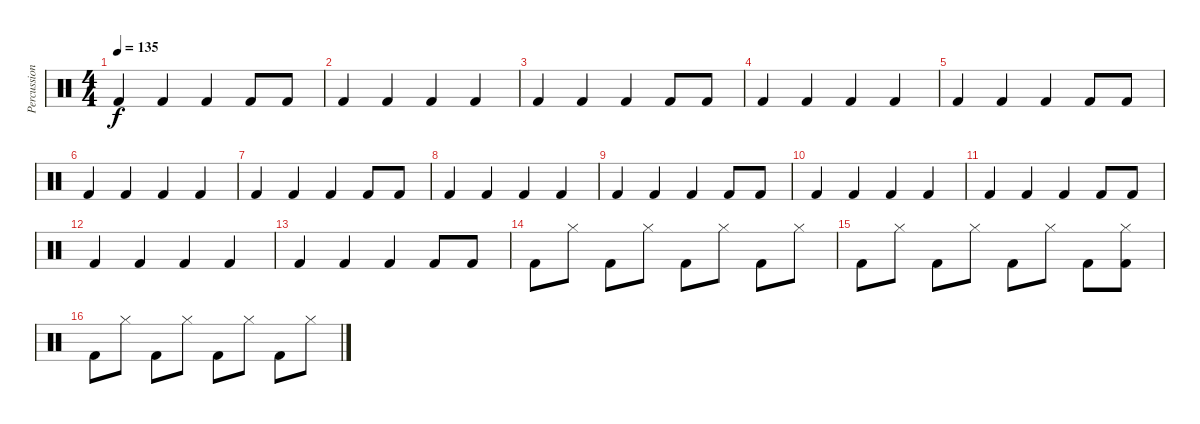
\track ("Percussion" "Percussion") {instrument percussion}
\staff {score}
\articulation defaults
\ts (4 4)
\tempo 135
\clef neutral
\ks c "Kick (hit) 2".4{dy f} "Kick (hit) 2".4 "Kick (hit) 2".4 "Kick (hit) 2".8 "Kick (hit) 2".8
|
"Kick (hit) 2".4 "Kick (hit) 2".4 "Kick (hit) 2".4 "Kick (hit) 2".4 |
"Kick (hit) 2".4 "Kick (hit) 2".4 "Kick (hit) 2".4 "Kick (hit) 2".8 "Kick (hit) 2".8 |
"Kick (hit) 2".4 "Kick (hit) 2".4 "Kick (hit) 2".4 "Kick (hit) 2".4 |
"Kick (hit) 2".4 "Kick (hit) 2".4 "Kick (hit) 2".4 "Kick (hit) 2".8 "Kick (hit) 2".8 |
"Kick (hit) 2".4 "Kick (hit) 2".4 "Kick (hit) 2".4 "Kick (hit) 2".4 |
"Kick (hit) 2".4 "Kick (hit) 2".4 "Kick (hit) 2".4 "Kick (hit) 2".8 "Kick (hit) 2".8 |
"Kick (hit) 2".4 "Kick (hit) 2".4 "Kick (hit) 2".4 "Kick (hit) 2".4 |
"Kick (hit) 2".4 "Kick (hit) 2".4 "Kick (hit) 2".4 "Kick (hit) 2".8 "Kick (hit) 2".8 |
"Kick (hit) 2".4 "Kick (hit) 2".4 "Kick (hit) 2".4 "Kick (hit) 2".4 |
"Kick (hit) 2".4 "Kick (hit) 2".4 "Kick (hit) 2".4 "Kick (hit) 2".8 "Kick (hit) 2".8 |
"Kick (hit) 2".4 "Kick (hit) 2".4 "Kick (hit) 2".4 "Kick (hit) 2".4 |
"Kick (hit) 2".4 "Kick (hit) 2".4 "Kick (hit) 2".4 "Kick (hit) 2".8 "Kick (hit) 2".8 |
"Kick (hit) 2".8 "Hi-Hat (closed)".8 "Kick (hit) 2".8 "Hi-Hat (closed)".8 "Kick (hit) 2".8 "Hi-Hat (closed)".8 "Kick (hit) 2".8 "Hi-Hat (closed)".8 |
"Kick (hit) 2".8 "Hi-Hat (closed)".8 "Kick (hit) 2".8 "Hi-Hat (closed)".8 "Kick (hit) 2".8 "Hi-Hat (closed)".8 "Kick (hit) 2".8 ("Hi-Hat (closed)" "Kick (hit) 2").8 |
"Kick (hit) 2".8 "Hi-Hat (closed)".8 "Kick (hit) 2".8 "Hi-Hat (closed)".8 "Kick (hit) 2".8 "Hi-Hat (closed)".8 "Kick (hit) 2".8 "Hi-Hat (closed)".8
